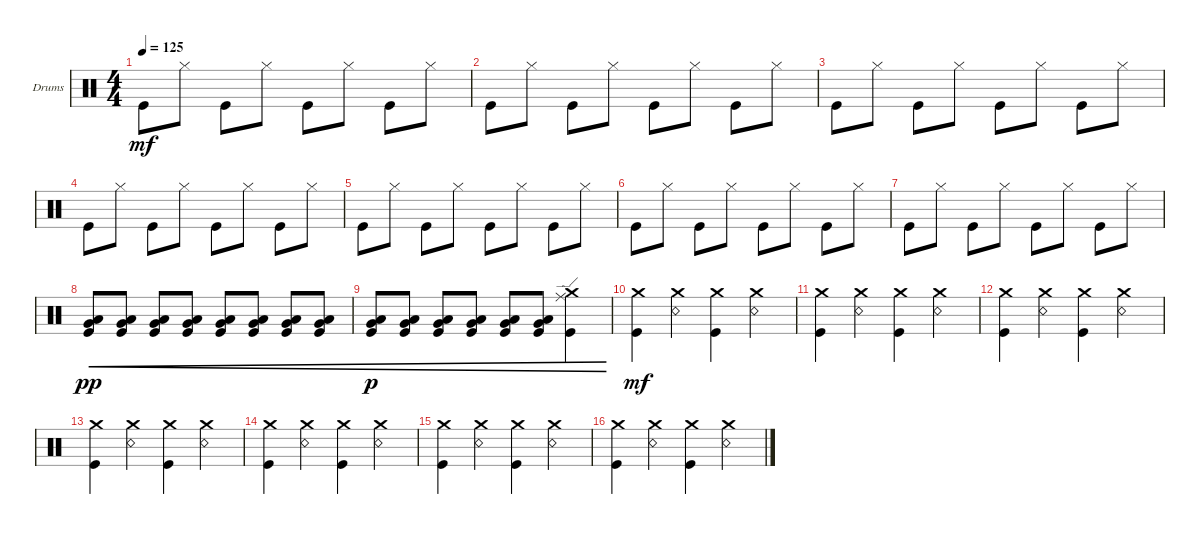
\defaultSystemsLayout 4
\bracketExtendMode groupsimilarinstruments
\firstSystemTrackNameOrientation horizontal
\otherSystemsTrackNameOrientation horizontal
\track ("Drumkit" "Drums") {instrument percussion}
\staff {score}
\articulation defaults
\ts (4 4)
\tempo 125
\clef neutral
\ks c "Kick (hit)".8{dy mf} "Hi-Hat (closed)".8 "Kick (hit)".8 "Hi-Hat (closed)".8 "Kick (hit)".8 "Hi-Hat (closed)".8 "Kick (hit)".8 "Hi-Hat (closed)".8
|
"Kick (hit)".8 "Hi-Hat (closed)".8 "Kick (hit)".8 "Hi-Hat (closed)".8 "Kick (hit)".8 "Hi-Hat (closed)".8 "Kick (hit)".8 "Hi-Hat (closed)".8 |
"Kick (hit)".8 "Hi-Hat (closed)".8 "Kick (hit)".8 "Hi-Hat (closed)".8 "Kick (hit)".8 "Hi-Hat (closed)".8 "Kick (hit)".8 "Hi-Hat (closed)".8 |
"Kick (hit)".8 "Hi-Hat (closed)".8 "Kick (hit)".8 "Hi-Hat (closed)".8 "Kick (hit)".8 "Hi-Hat (closed)".8 "Kick (hit)".8 "Hi-Hat (closed)".8 |
"Kick (hit)".8 "Hi-Hat (closed)".8 "Kick (hit)".8 "Hi-Hat (closed)".8 "Kick (hit)".8 "Hi-Hat (closed)".8 "Kick (hit)".8 "Hi-Hat (closed)".8 |
"Kick (hit)".8 "Hi-Hat (closed)".8 "Kick (hit)".8 "Hi-Hat (closed)".8 "Kick (hit)".8 "Hi-Hat (closed)".8 "Kick (hit)".8 "Hi-Hat (closed)".8 |
"Kick (hit)".8 "Hi-Hat (closed)".8 "Kick (hit)".8 "Hi-Hat (closed)".8 "Kick (hit)".8 "Hi-Hat (closed)".8 "Kick (hit)".8 "Hi-Hat (closed)".8 |
("Kick (hit)" "Very Low Tom (hit)" "Low Tom (hit)").8{cre dy pp} ("Kick (hit)" "Very Low Tom (hit)" "Low Tom (hit)").8{cre} ("Kick (hit)" "Very Low Tom (hit)" "Low Tom (hit)").8{cre} ("Kick (hit)" "Very Low Tom (hit)" "Low Tom (hit)").8{cre} ("Kick (hit)" "Very Low Tom (hit)" "Low Tom (hit)").8{cre} ("Kick (hit)" "Very Low Tom (hit)" "Low Tom (hit)").8{cre} ("Kick (hit)" "Very Low Tom (hit)" "Low Tom (hit)").8{cre} ("Kick (hit)" "Very Low Tom (hit)" "Low Tom (hit)").8{cre} |
("Kick (hit)" "Very Low Tom (hit)" "Low Tom (hit)").8{cre dy p} ("Kick (hit)" "Very Low Tom (hit)" "Low Tom (hit)").8{cre} ("Kick (hit)" "Very Low Tom (hit)" "Low Tom (hit)").8{cre} ("Kick (hit)" "Very Low Tom (hit)" "Low Tom (hit)").8{cre} ("Kick (hit)" "Very Low Tom (hit)" "Low Tom (hit)").8{cre} ("Kick (hit)" "Very Low Tom (hit)" "Low Tom (hit)").8{cre} ("Kick (hit)" "Crash medium (hit)" "Ride (edge)").4{cre} |
("Crash medium (hit)" "Kick (hit)").4{dy mf} ("Snare (rim shot)" "Crash medium (hit)").4 ("Crash medium (hit)" "Kick (hit)").4 ("Snare (rim shot)" "Crash medium (hit)").4 |
("Crash medium (hit)" "Kick (hit)").4 ("Snare (rim shot)" "Crash medium (hit)").4 ("Crash medium (hit)" "Kick (hit)").4 ("Snare (rim shot)" "Crash medium (hit)").4 |
("Crash medium (hit)" "Kick (hit)").4 ("Snare (rim shot)" "Crash medium (hit)").4 ("Crash medium (hit)" "Kick (hit)").4 ("Snare (rim shot)" "Crash medium (hit)").4 |
("Crash medium (hit)" "Kick (hit)").4 ("Snare (rim shot)" "Crash medium (hit)").4 ("Crash medium (hit)" "Kick (hit)").4 ("Snare (rim shot)" "Crash medium (hit)").4 |
("Crash medium (hit)" "Kick (hit)").4 ("Snare (rim shot)" "Crash medium (hit)").4 ("Crash medium (hit)" "Kick (hit)").4 ("Snare (rim shot)" "Crash medium (hit)").4 |
("Crash medium (hit)" "Kick (hit)").4 ("Snare (rim shot)" "Crash medium (hit)").4 ("Crash medium (hit)" "Kick (hit)").4 ("Snare (rim shot)" "Crash medium (hit)").4 |
("Crash medium (hit)" "Kick (hit)").4 ("Snare (rim shot)" "Crash medium (hit)").4 ("Crash medium (hit)" "Kick (hit)").4 ("Snare (rim shot)" "Crash medium (hit)").4
